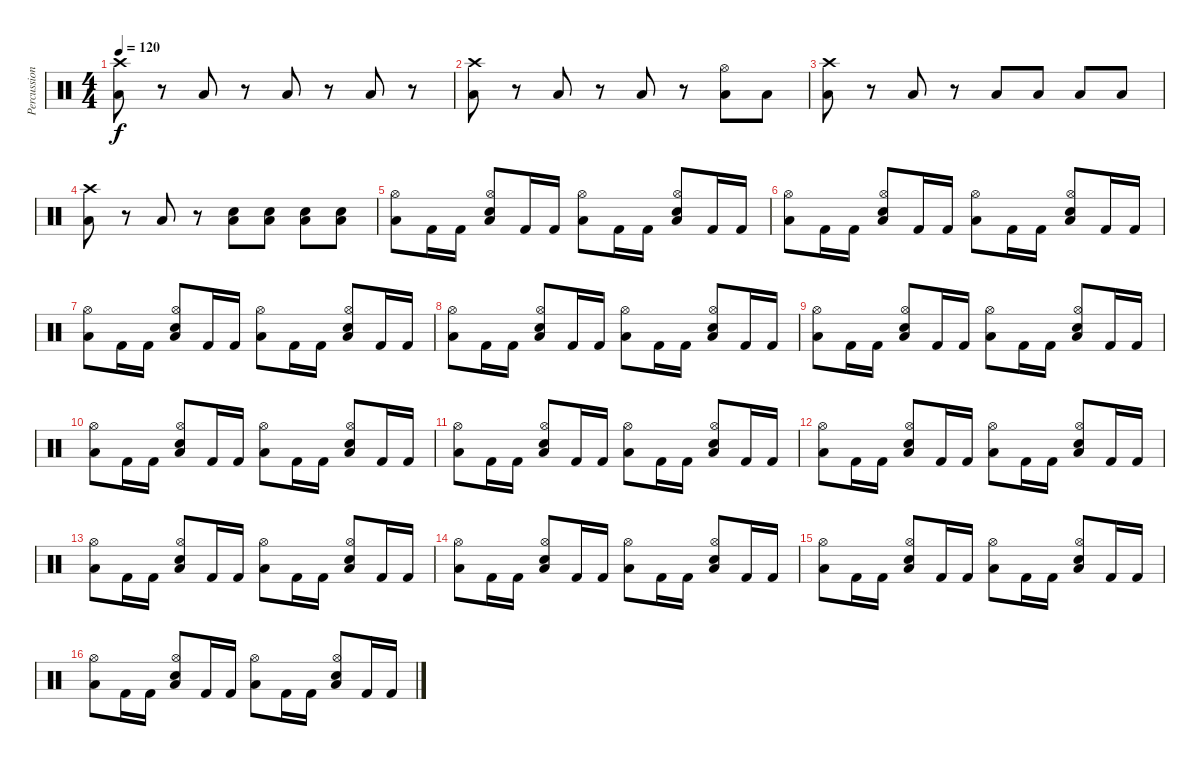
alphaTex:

\track ("Percussions" "Percussion") {instrument percussion}
\staff {score}
\articulation defaults
\ts (4 4)
\tempo 120
\clef neutral
\ks c
("Crash high (hit)" "Low Tom (hit)").8{dy f} r.8 "Low Tom (hit)".8 r.8 "Low Tom (hit)".8 r.8 "Low Tom (hit)".8 r.8 |
("Crash high (hit)" "Low Tom (hit)").8 r.8 "Low Tom (hit)".8 r.8 "Low Tom (hit)".8 r.8 ("Hi-Hat (open)" "Low Tom (hit)").8 "Low Tom (hit)".8 |
("Crash high (hit)" "Low Tom (hit)").8 r.8 "Low Tom (hit)".8 r.8 "Low Tom (hit)".8 "Low Tom (hit)".8 "Low Tom (hit)".8 "Low Tom (hit)".8 |
("Crash high (hit)" "Low Tom (hit)").8 r.8 "Low Tom (hit)".8 r.8 ("Low Tom (hit)" "Snare (hit) 2").8 ("Low Tom (hit)" "Snare (hit) 2").8 ("Low Tom (hit)" "Snare (hit) 2").8 ("Low Tom (hit)" "Snare (hit) 2").8 |
("Hi-Hat (open)" "Low Tom (hit)").8 "Kick (hit) 2".16 "Kick (hit) 2".16 ("Hi-Hat (open)" "Low Tom (hit)" "Snare (hit) 2").8 "Kick (hit) 2".16 "Kick (hit) 2".16 ("Hi-Hat (open)" "Low Tom (hit)").8 "Kick (hit) 2".16 "Kick (hit) 2".16 ("Hi-Hat (open)" "Low Tom (hit)" "Snare (hit) 2").8 "Kick (hit) 2".16 "Kick (hit) 2".16 |
("Hi-Hat (open)" "Low Tom (hit)").8 "Kick (hit) 2".16 "Kick (hit) 2".16 ("Hi-Hat (open)" "Low Tom (hit)" "Snare (hit) 2").8 "Kick (hit) 2".16 "Kick (hit) 2".16 ("Hi-Hat (open)" "Low Tom (hit)").8 "Kick (hit) 2".16 "Kick (hit) 2".16 ("Hi-Hat (open)" "Low Tom (hit)" "Snare (hit) 2").8 "Kick (hit) 2".16 "Kick (hit) 2".16 |
("Hi-Hat (open)" "Low Tom (hit)").8 "Kick (hit) 2".16 "Kick (hit) 2".16 ("Hi-Hat (open)" "Low Tom (hit)" "Snare (hit) 2").8 "Kick (hit) 2".16 "Kick (hit) 2".16 ("Hi-Hat (open)" "Low Tom (hit)").8 "Kick (hit) 2".16 "Kick (hit) 2".16 ("Hi-Hat (open)" "Low Tom (hit)" "Snare (hit) 2").8 "Kick (hit) 2".16 "Kick (hit) 2".16 |
("Hi-Hat (open)" "Low Tom (hit)").8 "Kick (hit) 2".16 "Kick (hit) 2".16 ("Hi-Hat (open)" "Low Tom (hit)" "Snare (hit) 2").8 "Kick (hit) 2".16 "Kick (hit) 2".16 ("Hi-Hat (open)" "Low Tom (hit)").8 "Kick (hit) 2".16 "Kick (hit) 2".16 ("Hi-Hat (open)" "Low Tom (hit)" "Snare (hit) 2").8 "Kick (hit) 2".16 "Kick (hit) 2".16 |
("Hi-Hat (open)" "Low Tom (hit)").8 "Kick (hit) 2".16 "Kick (hit) 2".16 ("Hi-Hat (open)" "Low Tom (hit)" "Snare (hit) 2").8 "Kick (hit) 2".16 "Kick (hit) 2".16 ("Hi-Hat (open)" "Low Tom (hit)").8 "Kick (hit) 2".16 "Kick (hit) 2".16 ("Hi-Hat (open)" "Low Tom (hit)" "Snare (hit) 2").8 "Kick (hit) 2".16 "Kick (hit) 2".16 |
("Hi-Hat (open)" "Low Tom (hit)").8 "Kick (hit) 2".16 "Kick (hit) 2".16 ("Hi-Hat (open)" "Low Tom (hit)" "Snare (hit) 2").8 "Kick (hit) 2".16 "Kick (hit) 2".16 ("Hi-Hat (open)" "Low Tom (hit)").8 "Kick (hit) 2".16 "Kick (hit) 2".16 ("Hi-Hat (open)" "Low Tom (hit)" "Snare (hit) 2").8 "Kick (hit) 2".16 "Kick (hit) 2".16 |
("Hi-Hat (open)" "Low Tom (hit)").8 "Kick (hit) 2".16 "Kick (hit) 2".16 ("Hi-Hat (open)" "Low Tom (hit)" "Snare (hit) 2").8 "Kick (hit) 2".16 "Kick (hit) 2".16 ("Hi-Hat (open)" "Low Tom (hit)").8 "Kick (hit) 2".16 "Kick (hit) 2".16 ("Hi-Hat (open)" "Low Tom (hit)" "Snare (hit) 2").8 "Kick (hit) 2".16 "Kick (hit) 2".16 |
("Hi-Hat (open)" "Low Tom (hit)").8 "Kick (hit) 2".16 "Kick (hit) 2".16 ("Hi-Hat (open)" "Low Tom (hit)" "Snare (hit) 2").8 "Kick (hit) 2".16 "Kick (hit) 2".16 ("Hi-Hat (open)" "Low Tom (hit)").8 "Kick (hit) 2".16 "Kick (hit) 2".16 ("Hi-Hat (open)" "Low Tom (hit)" "Snare (hit) 2").8 "Kick (hit) 2".16 "Kick (hit) 2".16 |
("Hi-Hat (open)" "Low Tom (hit)").8 "Kick (hit) 2".16 "Kick (hit) 2".16 ("Hi-Hat (open)" "Low Tom (hit)" "Snare (hit) 2").8 "Kick (hit) 2".16 "Kick (hit) 2".16 ("Hi-Hat (open)" "Low Tom (hit)").8 "Kick (hit) 2".16 "Kick (hit) 2".16 ("Hi-Hat (open)" "Low Tom (hit)" "Snare (hit) 2").8 "Kick (hit) 2".16 "Kick (hit) 2".16 |
("Hi-Hat (open)" "Low Tom (hit)").8 "Kick (hit) 2".16 "Kick (hit) 2".16 ("Hi-Hat (open)" "Low Tom (hit)" "Snare (hit) 2").8 "Kick (hit) 2".16 "Kick (hit) 2".16 ("Hi-Hat (open)" "Low Tom (hit)").8 "Kick (hit) 2".16 "Kick (hit) 2".16 ("Hi-Hat (open)" "Low Tom (hit)" "Snare (hit) 2").8 "Kick (hit) 2".16 "Kick (hit) 2".16 |
("Hi-Hat (open)" "Low Tom (hit)").8 "Kick (hit) 2".16 "Kick (hit) 2".16 ("Hi-Hat (open)" "Low Tom (hit)" "Snare (hit) 2").8 "Kick (hit) 2".16 "Kick (hit) 2".16 ("Hi-Hat (open)" "Low Tom (hit)").8 "Kick (hit) 2".16 "Kick (hit) 2".16 ("Hi-Hat (open)" "Low Tom (hit)" "Snare (hit) 2").8 "Kick (hit) 2".16 "Kick (hit) 2".16 |
("Hi-Hat (open)" "Low Tom (hit)").8 "Kick (hit) 2".16 "Kick (hit) 2".16 ("Hi-Hat (open)" "Low Tom (hit)" "Snare (hit) 2").8 "Kick (hit) 2".16 "Kick (hit) 2".16 ("Hi-Hat (open)" "Low Tom (hit)").8 "Kick (hit) 2".16 "Kick (hit) 2".16 ("Hi-Hat (open)" "Low Tom (hit)" "Snare (hit) 2").8 "Kick (hit) 2".16 "Kick (hit) 2".16
